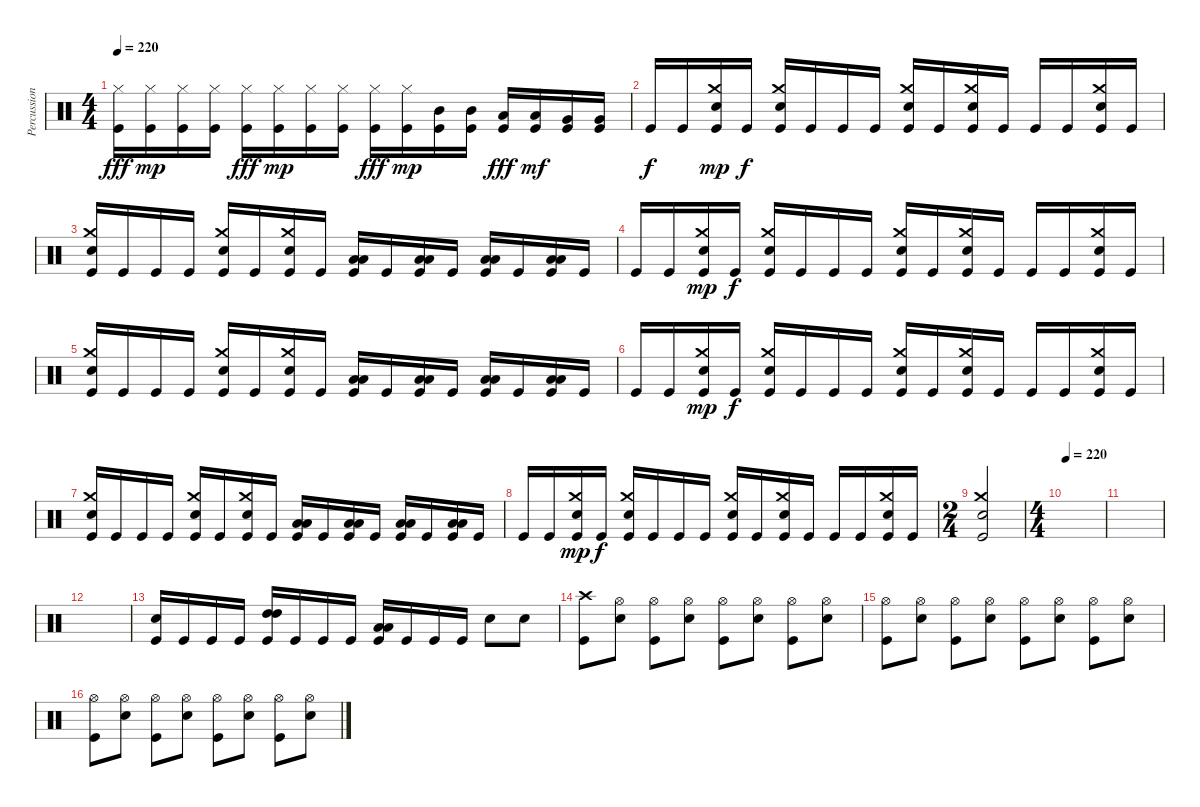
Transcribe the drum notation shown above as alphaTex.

\track ("Percussion" "Percussion") {instrument percussion}
\staff {score}
\articulation defaults
\ts (4 4)
\tempo 220
\clef neutral
\ks c
("Hi-Hat (closed)" "Kick (hit)").16{dy fff} ("Hi-Hat (closed)" "Kick (hit)").16{dy mp} ("Hi-Hat (closed)" "Kick (hit)").16 ("Hi-Hat (closed)" "Kick (hit)").16 ("Hi-Hat (closed)" "Kick (hit)").16{dy fff} ("Hi-Hat (closed)" "Kick (hit)").16{dy mp} ("Hi-Hat (closed)" "Kick (hit)").16 ("Hi-Hat (closed)" "Kick (hit)").16 ("Hi-Hat (closed)" "Kick (hit)").16{dy fff} ("Hi-Hat (closed)" "Kick (hit)").16{dy mp} ("Mid Tom (hit)" "Kick (hit)").16 ("Mid Tom (hit)" "Kick (hit)").16 ("Low Tom (hit)" "Kick (hit)").16{dy fff} ("Low Tom (hit)" "Kick (hit)").16{dy mf} ("Very Low Tom (hit)" "Kick (hit)").16 ("Very Low Tom (hit)" "Kick (hit)").16 |
"Kick (hit)".16{dy f} "Kick (hit)".16 ("Crash medium (hit)" "Snare (hit) 2" "Kick (hit)").16{dy mp} "Kick (hit)".16{dy f} ("Crash medium (hit)" "Snare (hit) 2" "Kick (hit)").16 "Kick (hit)".16 "Kick (hit)".16 "Kick (hit)".16 ("Crash medium (hit)" "Snare (hit) 2" "Kick (hit)").16 "Kick (hit)".16 ("Crash medium (hit)" "Snare (hit) 2" "Kick (hit)").16 "Kick (hit)".16 "Kick (hit)".16 "Kick (hit)".16 ("Crash medium (hit)" "Snare (hit) 2" "Kick (hit)").16 "Kick (hit)".16 |
("Crash medium (hit)" "Snare (hit) 2" "Kick (hit)").16 "Kick (hit)".16 "Kick (hit)".16 "Kick (hit)".16 ("Crash medium (hit)" "Snare (hit) 2" "Kick (hit)").16 "Kick (hit)".16 ("Crash medium (hit)" "Snare (hit) 2" "Kick (hit)").16 "Kick (hit)".16 ("Low Floor Tom (hit)" "Low Floor Tom (hit)" "Kick (hit)").16 "Kick (hit)".16 ("Low Floor Tom (hit)" "Low Floor Tom (hit)" "Kick (hit)").16 "Kick (hit)".16 ("Low Floor Tom (hit)" "Low Floor Tom (hit)" "Kick (hit)").16 "Kick (hit)".16 ("Low Floor Tom (hit)" "Low Floor Tom (hit)" "Kick (hit)").16 "Kick (hit)".16 |
"Kick (hit)".16 "Kick (hit)".16 ("Crash medium (hit)" "Snare (hit) 2" "Kick (hit)").16{dy mp} "Kick (hit)".16{dy f} ("Crash medium (hit)" "Snare (hit) 2" "Kick (hit)").16 "Kick (hit)".16 "Kick (hit)".16 "Kick (hit)".16 ("Crash medium (hit)" "Snare (hit) 2" "Kick (hit)").16 "Kick (hit)".16 ("Crash medium (hit)" "Snare (hit) 2" "Kick (hit)").16 "Kick (hit)".16 "Kick (hit)".16 "Kick (hit)".16 ("Crash medium (hit)" "Snare (hit) 2" "Kick (hit)").16 "Kick (hit)".16 |
("Crash medium (hit)" "Snare (hit) 2" "Kick (hit)").16 "Kick (hit)".16 "Kick (hit)".16 "Kick (hit)".16 ("Crash medium (hit)" "Snare (hit) 2" "Kick (hit)").16 "Kick (hit)".16 ("Crash medium (hit)" "Snare (hit) 2" "Kick (hit)").16 "Kick (hit)".16 ("Low Floor Tom (hit)" "Low Floor Tom (hit)" "Kick (hit)").16 "Kick (hit)".16 ("Low Floor Tom (hit)" "Low Floor Tom (hit)" "Kick (hit)").16 "Kick (hit)".16 ("Low Floor Tom (hit)" "Low Floor Tom (hit)" "Kick (hit)").16 "Kick (hit)".16 ("Low Floor Tom (hit)" "Low Floor Tom (hit)" "Kick (hit)").16 "Kick (hit)".16 |
"Kick (hit)".16 "Kick (hit)".16 ("Crash medium (hit)" "Snare (hit) 2" "Kick (hit)").16{dy mp} "Kick (hit)".16{dy f} ("Crash medium (hit)" "Snare (hit) 2" "Kick (hit)").16 "Kick (hit)".16 "Kick (hit)".16 "Kick (hit)".16 ("Crash medium (hit)" "Snare (hit) 2" "Kick (hit)").16 "Kick (hit)".16 ("Crash medium (hit)" "Snare (hit) 2" "Kick (hit)").16 "Kick (hit)".16 "Kick (hit)".16 "Kick (hit)".16 ("Crash medium (hit)" "Snare (hit) 2" "Kick (hit)").16 "Kick (hit)".16 |
("Crash medium (hit)" "Snare (hit) 2" "Kick (hit)").16 "Kick (hit)".16 "Kick (hit)".16 "Kick (hit)".16 ("Crash medium (hit)" "Snare (hit) 2" "Kick (hit)").16 "Kick (hit)".16 ("Crash medium (hit)" "Snare (hit) 2" "Kick (hit)").16 "Kick (hit)".16 ("Low Floor Tom (hit)" "Low Floor Tom (hit)" "Kick (hit)").16 "Kick (hit)".16 ("Low Floor Tom (hit)" "Low Floor Tom (hit)" "Kick (hit)").16 "Kick (hit)".16 ("Low Floor Tom (hit)" "Low Floor Tom (hit)" "Kick (hit)").16 "Kick (hit)".16 ("Low Floor Tom (hit)" "Low Floor Tom (hit)" "Kick (hit)").16 "Kick (hit)".16 |
"Kick (hit)".16 "Kick (hit)".16 ("Crash medium (hit)" "Snare (hit) 2" "Kick (hit)").16{dy mp} "Kick (hit)".16{dy f} ("Crash medium (hit)" "Snare (hit) 2" "Kick (hit)").16 "Kick (hit)".16 "Kick (hit)".16 "Kick (hit)".16 ("Crash medium (hit)" "Snare (hit) 2" "Kick (hit)").16 "Kick (hit)".16 ("Crash medium (hit)" "Snare (hit) 2" "Kick (hit)").16 "Kick (hit)".16 "Kick (hit)".16 "Kick (hit)".16 ("Crash medium (hit)" "Snare (hit) 2" "Kick (hit)").16 "Kick (hit)".16 |
\ts (2 4)
("Crash medium (hit)" "Snare (hit) 2" "Kick (hit)").2 |
\ts (4 4)
\tempo 220
|
|
|
("Snare (hit) 2" "Kick (hit)").16 "Kick (hit)".16 "Kick (hit)".16 "Kick (hit)".16 ("High Tom (hit)" "High Tom (hit)" "Kick (hit)").16 "Kick (hit)".16 "Kick (hit)".16 "Kick (hit)".16 ("Low Tom (hit)" "Low Tom (hit)" "Kick (hit)").16 "Kick (hit)".16 "Kick (hit)".16 "Kick (hit)".16 "Snare (hit) 2".8 "Snare (hit) 2".8 |
("Crash high (hit)" "Kick (hit)").8 ("Hi-Hat (open)" "Snare (hit) 2").8 ("Hi-Hat (open)" "Kick (hit)").8 ("Hi-Hat (open)" "Snare (hit) 2").8 ("Hi-Hat (open)" "Kick (hit)").8 ("Hi-Hat (open)" "Snare (hit) 2").8 ("Hi-Hat (open)" "Kick (hit)").8 ("Hi-Hat (open)" "Snare (hit) 2").8 |
("Hi-Hat (open)" "Kick (hit)").8 ("Hi-Hat (open)" "Snare (hit) 2").8 ("Hi-Hat (open)" "Kick (hit)").8 ("Hi-Hat (open)" "Snare (hit) 2").8 ("Hi-Hat (open)" "Kick (hit)").8 ("Hi-Hat (open)" "Snare (hit) 2").8 ("Hi-Hat (open)" "Kick (hit)").8 ("Hi-Hat (open)" "Snare (hit) 2").8 |
("Hi-Hat (open)" "Kick (hit)").8 ("Hi-Hat (open)" "Snare (hit) 2").8 ("Hi-Hat (open)" "Kick (hit)").8 ("Hi-Hat (open)" "Snare (hit) 2").8 ("Hi-Hat (open)" "Kick (hit)").8 ("Hi-Hat (open)" "Snare (hit) 2").8 ("Hi-Hat (open)" "Kick (hit)").8 ("Hi-Hat (open)" "Snare (hit) 2").8
